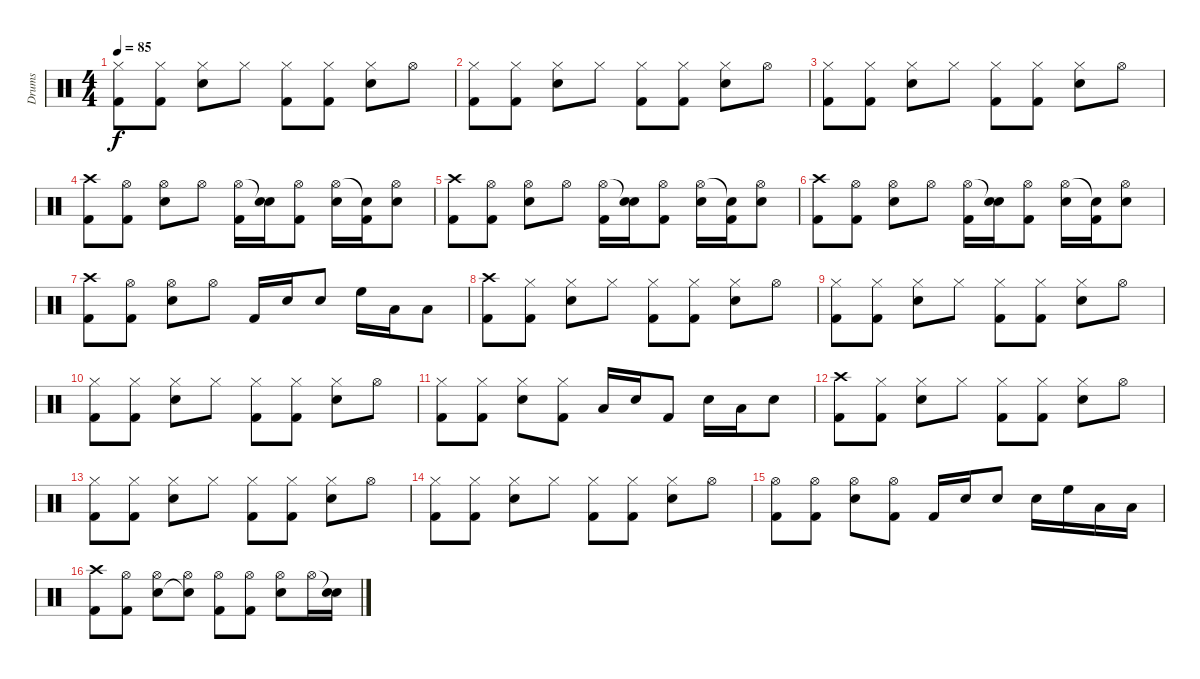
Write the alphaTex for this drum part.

\track ("Drums" "Drums") {instrument percussion}
\staff {score}
\articulation defaults
\ts (4 4)
\tempo 85
\clef neutral
\ks c
("Hi-Hat (closed)" "Kick (hit) 2").8{dy f} ("Hi-Hat (closed)" "Kick (hit) 2").8 ("Hi-Hat (closed)" "Snare (hit) 2").8 "Hi-Hat (closed)".8 ("Hi-Hat (closed)" "Kick (hit) 2").8 ("Hi-Hat (closed)" "Kick (hit) 2").8 ("Hi-Hat (closed)" "Snare (hit) 2").8 "Hi-Hat (open)".8 |
("Hi-Hat (closed)" "Kick (hit) 2").8 ("Hi-Hat (closed)" "Kick (hit) 2").8 ("Hi-Hat (closed)" "Snare (hit) 2").8 "Hi-Hat (closed)".8 ("Hi-Hat (closed)" "Kick (hit) 2").8 ("Hi-Hat (closed)" "Kick (hit) 2").8 ("Hi-Hat (closed)" "Snare (hit) 2").8 "Hi-Hat (open)".8 |
("Hi-Hat (closed)" "Kick (hit) 2").8 ("Hi-Hat (closed)" "Kick (hit) 2").8 ("Hi-Hat (closed)" "Snare (hit) 2").8 "Hi-Hat (closed)".8 ("Hi-Hat (closed)" "Kick (hit) 2").8 ("Hi-Hat (closed)" "Kick (hit) 2").8 ("Hi-Hat (closed)" "Snare (hit) 2").8 "Hi-Hat (open)".8 |
("Crash high (hit)" "Kick (hit) 2").8 ("Hi-Hat (open)" "Kick (hit) 2").8 ("Hi-Hat (open)" "Snare (hit) 2").8 "Hi-Hat (open)".8 ("Hi-Hat (open)" "Kick (hit) 2").16 ("Snare (hit)"{t} "Snare (hit) 2").16 ("Hi-Hat (open)" "Kick (hit) 2").8 ("Hi-Hat (open)" "Snare (hit) 2").16 ("Snare (hit)"{t} "Kick (hit) 2").16 ("Hi-Hat (open)" "Snare (hit) 2").8 |
("Crash high (hit)" "Kick (hit) 2").8 ("Hi-Hat (open)" "Kick (hit) 2").8 ("Hi-Hat (open)" "Snare (hit) 2").8 "Hi-Hat (open)".8 ("Hi-Hat (open)" "Kick (hit) 2").16 ("Snare (hit)"{t} "Snare (hit) 2").16 ("Hi-Hat (open)" "Kick (hit) 2").8 ("Hi-Hat (open)" "Snare (hit) 2").16 ("Snare (hit)"{t} "Kick (hit) 2").16 ("Hi-Hat (open)" "Snare (hit) 2").8 |
("Crash high (hit)" "Kick (hit) 2").8 ("Hi-Hat (open)" "Kick (hit) 2").8 ("Hi-Hat (open)" "Snare (hit) 2").8 "Hi-Hat (open)".8 ("Hi-Hat (open)" "Kick (hit) 2").16 ("Snare (hit)"{t} "Snare (hit) 2").16 ("Hi-Hat (open)" "Kick (hit) 2").8 ("Hi-Hat (open)" "Snare (hit) 2").16 ("Snare (hit)"{t} "Kick (hit) 2").16 ("Hi-Hat (open)" "Snare (hit) 2").8 |
("Crash high (hit)" "Kick (hit) 2").8 ("Hi-Hat (open)" "Kick (hit) 2").8 ("Hi-Hat (open)" "Snare (hit) 2").8 "Hi-Hat (open)".8 "Kick (hit) 2".16 "Snare (hit) 2".16 "Snare (hit) 2".8 "High Floor Tom (hit)".16 "Low Tom (hit)".16 "Low Floor Tom (hit)".8 |
("Crash high (hit)" "Kick (hit) 2").8 ("Hi-Hat (closed)" "Kick (hit) 2").8 ("Hi-Hat (closed)" "Snare (hit) 2").8 "Hi-Hat (closed)".8 ("Hi-Hat (closed)" "Kick (hit) 2").8 ("Hi-Hat (closed)" "Kick (hit) 2").8 ("Hi-Hat (closed)" "Snare (hit) 2").8 "Hi-Hat (open)".8 |
("Hi-Hat (closed)" "Kick (hit) 2").8 ("Hi-Hat (closed)" "Kick (hit) 2").8 ("Hi-Hat (closed)" "Snare (hit) 2").8 "Hi-Hat (closed)".8 ("Hi-Hat (closed)" "Kick (hit) 2").8 ("Hi-Hat (closed)" "Kick (hit) 2").8 ("Hi-Hat (closed)" "Snare (hit) 2").8 "Hi-Hat (open)".8 |
("Hi-Hat (closed)" "Kick (hit) 2").8 ("Hi-Hat (closed)" "Kick (hit) 2").8 ("Hi-Hat (closed)" "Snare (hit) 2").8 "Hi-Hat (closed)".8 ("Hi-Hat (closed)" "Kick (hit) 2").8 ("Hi-Hat (closed)" "Kick (hit) 2").8 ("Hi-Hat (closed)" "Snare (hit) 2").8 "Hi-Hat (open)".8 |
("Hi-Hat (closed)" "Kick (hit) 2").8 ("Hi-Hat (closed)" "Kick (hit) 2").8 ("Hi-Hat (closed)" "Snare (hit) 2").8 ("Hi-Hat (closed)" "Kick (hit) 2").8 "Low Floor Tom (hit)".16 "Snare (hit) 2".16 "Kick (hit) 2".8 "Snare (hit) 2".16 "Low Tom (hit)".16 "Snare (hit) 2".8 |
("Crash high (hit)" "Kick (hit) 2").8 ("Hi-Hat (closed)" "Kick (hit) 2").8 ("Hi-Hat (closed)" "Snare (hit) 2").8 "Hi-Hat (closed)".8 ("Hi-Hat (closed)" "Kick (hit) 2").8 ("Hi-Hat (closed)" "Kick (hit) 2").8 ("Hi-Hat (closed)" "Snare (hit) 2").8 "Hi-Hat (open)".8 |
("Hi-Hat (closed)" "Kick (hit) 2").8 ("Hi-Hat (closed)" "Kick (hit) 2").8 ("Hi-Hat (closed)" "Snare (hit) 2").8 "Hi-Hat (closed)".8 ("Hi-Hat (closed)" "Kick (hit) 2").8 ("Hi-Hat (closed)" "Kick (hit) 2").8 ("Hi-Hat (closed)" "Snare (hit) 2").8 "Hi-Hat (open)".8 |
("Hi-Hat (closed)" "Kick (hit) 2").8 ("Hi-Hat (closed)" "Kick (hit) 2").8 ("Hi-Hat (closed)" "Snare (hit) 2").8 "Hi-Hat (closed)".8 ("Hi-Hat (closed)" "Kick (hit) 2").8 ("Hi-Hat (closed)" "Kick (hit) 2").8 ("Hi-Hat (closed)" "Snare (hit) 2").8 "Hi-Hat (open)".8 |
("Hi-Hat (open)" "Kick (hit) 2").8 ("Hi-Hat (open)" "Kick (hit) 2").8 ("Hi-Hat (open)" "Snare (hit) 2").8 ("Hi-Hat (open)" "Kick (hit) 2").8 "Kick (hit) 2".16 "Snare (hit) 2".16 "Snare (hit) 2".8 "Snare (hit) 2".16 "High Floor Tom (hit)".16 "Low Tom (hit)".16 "Low Floor Tom (hit)".16 |
("Crash high (hit)" "Kick (hit) 2").8 ("Hi-Hat (open)" "Kick (hit) 2").8 ("Hi-Hat (open)" "Snare (hit) 2").8 ("Hi-Hat (open)" "Snare (hit)"{t}).8 ("Hi-Hat (open)" "Kick (hit) 2").8 ("Hi-Hat (open)" "Kick (hit) 2").8 ("Hi-Hat (open)" "Snare (hit) 2").8 "Hi-Hat (open)".16 ("Snare (hit)"{t} "Snare (hit) 2").16
